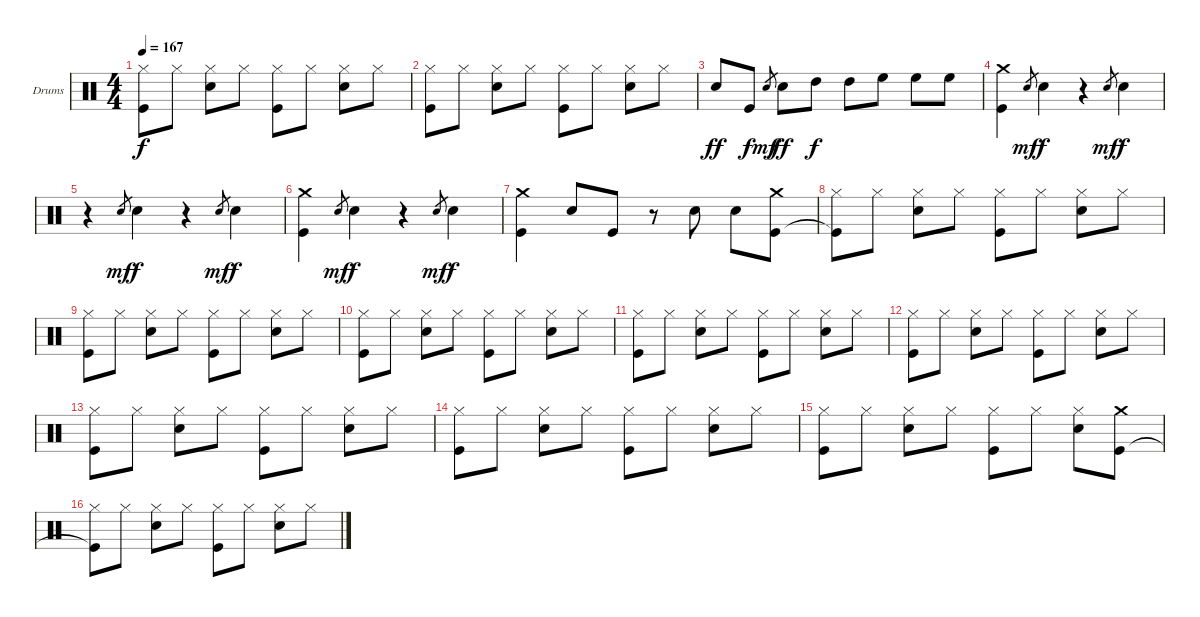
\bracketExtendMode groupsimilarinstruments
\firstSystemTrackNameOrientation horizontal
\otherSystemsTrackNameOrientation horizontal
\track ("Drumkit" "Drums") {instrument percussion}
\staff {score}
\articulation defaults
\ts (4 4)
\tempo 167
\clef neutral
\ks c
("Hi-Hat (closed)" "Kick (hit)").8{dy f} "Hi-Hat (closed)".8 ("Hi-Hat (closed)" "Snare (hit) 2").8 "Hi-Hat (closed)".8 ("Hi-Hat (closed)" "Kick (hit)").8 "Hi-Hat (closed)".8 ("Hi-Hat (closed)" "Snare (hit) 2").8 "Hi-Hat (closed)".8 |
("Hi-Hat (closed)" "Kick (hit)").8 "Hi-Hat (closed)".8 ("Hi-Hat (closed)" "Snare (hit) 2").8 "Hi-Hat (closed)".8 ("Hi-Hat (closed)" "Kick (hit)").8 "Hi-Hat (closed)".8 ("Hi-Hat (closed)" "Snare (hit) 2").8 "Hi-Hat (closed)".8 |
"Snare (hit) 2".8{dy ff} "Kick (hit)".8{dy f} "Snare (hit) 2".8{gr dy mf} "Snare (hit) 2".8{dy ff} "High Tom (hit)".8{dy f} "High Tom (hit)".8 "High Floor Tom (hit)".8 "High Floor Tom (hit)".8 "High Floor Tom (hit)".8 |
("Crash medium (hit)" "Kick (hit)").4 "Snare (hit) 2".8{gr dy mf} "Snare (hit) 2".4{dy f} r.4 "Snare (hit) 2".8{gr dy mf} "Snare (hit) 2".4{dy f} |
r.4 "Snare (hit) 2".8{gr dy mf} "Snare (hit) 2".4{dy f} r.4 "Snare (hit) 2".8{gr dy mf} "Snare (hit) 2".4{dy f} |
("Crash medium (hit)" "Kick (hit)").4 "Snare (hit) 2".8{gr dy mf} "Snare (hit) 2".4{dy f} r.4 "Snare (hit) 2".8{gr dy mf} "Snare (hit) 2".4{dy f} |
("Crash medium (hit)" "Kick (hit)").4 "Snare (hit) 2".8 "Kick (hit)".8 r.8 "Snare (hit) 2".8 "Snare (hit) 2".8 ("Crash medium (hit)" "Kick (hit)").8 |
("Hi-Hat (closed)" "Kick (hit)"{t}).8 "Hi-Hat (closed)".8 ("Hi-Hat (closed)" "Snare (hit) 2").8 "Hi-Hat (closed)".8 ("Hi-Hat (closed)" "Kick (hit)").8 "Hi-Hat (closed)".8 ("Hi-Hat (closed)" "Snare (hit) 2").8 "Hi-Hat (closed)".8 |
("Hi-Hat (closed)" "Kick (hit)").8 "Hi-Hat (closed)".8 ("Hi-Hat (closed)" "Snare (hit) 2").8 "Hi-Hat (closed)".8 ("Hi-Hat (closed)" "Kick (hit)").8 "Hi-Hat (closed)".8 ("Hi-Hat (closed)" "Snare (hit) 2").8 "Hi-Hat (closed)".8 |
("Hi-Hat (closed)" "Kick (hit)").8 "Hi-Hat (closed)".8 ("Hi-Hat (closed)" "Snare (hit) 2").8 "Hi-Hat (closed)".8 ("Hi-Hat (closed)" "Kick (hit)").8 "Hi-Hat (closed)".8 ("Hi-Hat (closed)" "Snare (hit) 2").8 "Hi-Hat (closed)".8 |
("Hi-Hat (closed)" "Kick (hit)").8 "Hi-Hat (closed)".8 ("Hi-Hat (closed)" "Snare (hit) 2").8 "Hi-Hat (closed)".8 ("Hi-Hat (closed)" "Kick (hit)").8 "Hi-Hat (closed)".8 ("Hi-Hat (closed)" "Snare (hit) 2").8 "Hi-Hat (closed)".8 |
("Hi-Hat (closed)" "Kick (hit)").8 "Hi-Hat (closed)".8 ("Hi-Hat (closed)" "Snare (hit) 2").8 "Hi-Hat (closed)".8 ("Hi-Hat (closed)" "Kick (hit)").8 "Hi-Hat (closed)".8 ("Hi-Hat (closed)" "Snare (hit) 2").8 "Hi-Hat (closed)".8 |
("Hi-Hat (closed)" "Kick (hit)").8 "Hi-Hat (closed)".8 ("Hi-Hat (closed)" "Snare (hit) 2").8 "Hi-Hat (closed)".8 ("Hi-Hat (closed)" "Kick (hit)").8 "Hi-Hat (closed)".8 ("Hi-Hat (closed)" "Snare (hit) 2").8 "Hi-Hat (closed)".8 |
("Hi-Hat (closed)" "Kick (hit)").8 "Hi-Hat (closed)".8 ("Hi-Hat (closed)" "Snare (hit) 2").8 "Hi-Hat (closed)".8 ("Hi-Hat (closed)" "Kick (hit)").8 "Hi-Hat (closed)".8 ("Hi-Hat (closed)" "Snare (hit) 2").8 "Hi-Hat (closed)".8 |
("Hi-Hat (closed)" "Kick (hit)").8 "Hi-Hat (closed)".8 ("Hi-Hat (closed)" "Snare (hit) 2").8 "Hi-Hat (closed)".8 ("Hi-Hat (closed)" "Kick (hit)").8 "Hi-Hat (closed)".8 ("Hi-Hat (closed)" "Snare (hit) 2").8 ("Crash medium (hit)" "Kick (hit)").8 |
("Hi-Hat (closed)" "Kick (hit)"{t}).8 "Hi-Hat (closed)".8 ("Hi-Hat (closed)" "Snare (hit) 2").8 "Hi-Hat (closed)".8 ("Hi-Hat (closed)" "Kick (hit)").8 "Hi-Hat (closed)".8 ("Hi-Hat (closed)" "Snare (hit) 2").8 "Hi-Hat (closed)".8
